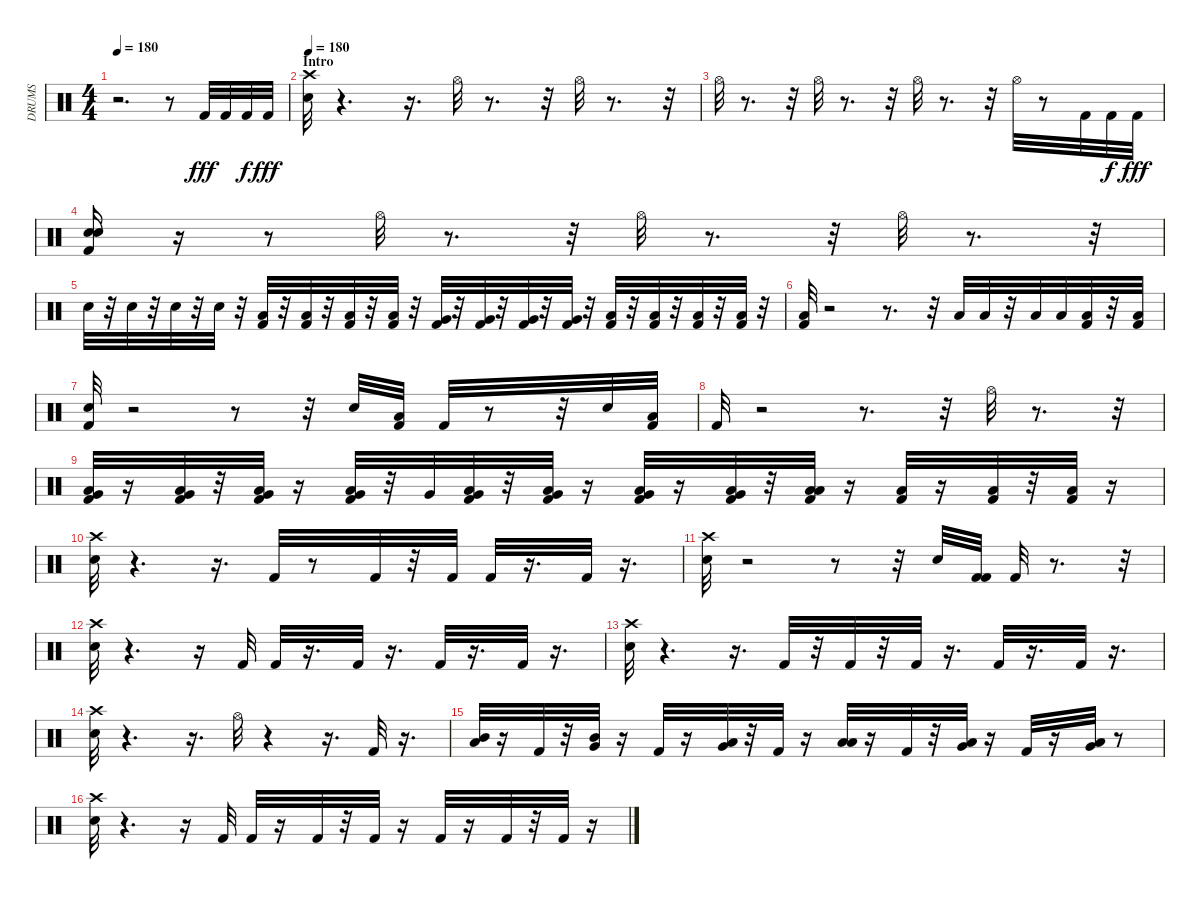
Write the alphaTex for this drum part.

\track ("DRUMS" "DRUMS") {instrument percussion}
\staff {score}
\articulation defaults
\ts (4 4)
\tempo 180
\clef neutral
\ks c
r.2{d dy fff} r.8 "Kick (hit) 2".32 "Kick (hit) 2".32 "Kick (hit) 2".32{dy f} "Kick (hit) 2".32{dy fff} |
\section ("" "Intro")
\tempo 180
("Crash high (hit)" "Electric Snare (hit)").32 r.4{d} r.16{d} "Hi-Hat (open)".32 r.8{d} r.32 "Hi-Hat (open)".32 r.8{d} r.32 |
"Hi-Hat (open)".32 r.8{d} r.32 "Hi-Hat (open)".32 r.8{d} r.32 "Hi-Hat (open)".32 r.8{d} r.32 "Hi-Hat (open)".32 r.8 "Kick (hit) 2".32 "Kick (hit) 2".32{dy f} "Kick (hit) 2".32{dy fff} |
("Kick (hit) 2" "Electric Snare (hit)" "Electric Snare (hit)").16 r.16 r.8 "Hi-Hat (open)".32 r.8{d} r.32 "Hi-Hat (open)".32 r.8{d} r.32 "Hi-Hat (open)".32 r.8{d} r.32 |
"Electric Snare (hit)".32 r.32 "Electric Snare (hit)".32 r.32 "Electric Snare (hit)".32 r.32 "Electric Snare (hit)".32 r.32 ("Low Tom (hit)" "Kick (hit) 2").32 r.32 ("Low Tom (hit)" "Kick (hit) 2").32 r.32 ("Low Tom (hit)" "Kick (hit) 2").32 r.32 ("Low Tom (hit)" "Kick (hit) 2").32 r.32 ("Very Low Tom (hit)" "Kick (hit) 2").32 r.32 ("Very Low Tom (hit)" "Kick (hit) 2").32 r.32 ("Very Low Tom (hit)" "Kick (hit) 2").32 r.32 ("Very Low Tom (hit)" "Kick (hit) 2").32 r.32 ("Low Floor Tom (hit)" "Kick (hit) 2").32 r.32 ("Low Floor Tom (hit)" "Kick (hit) 2").32 r.32 ("Low Floor Tom (hit)" "Kick (hit) 2").32 r.32 ("Low Floor Tom (hit)" "Kick (hit) 2").32 r.32 |
("Low Floor Tom (hit)" "Kick (hit) 2").32 r.2 r.8{d} r.32 "Low Floor Tom (hit)".32 "Low Floor Tom (hit)".32 r.32 "Low Floor Tom (hit)".32 "Low Floor Tom (hit)".32 ("Low Floor Tom (hit)" "Kick (hit) 2").32 r.32 ("Low Floor Tom (hit)" "Kick (hit) 2").32 |
("Electric Snare (hit)" "Kick (hit) 2").32 r.2 r.8 r.32 "Electric Snare (hit)".32 ("Low Floor Tom (hit)" "Kick (hit) 2").32 "Kick (hit) 2".32 r.8 r.32 "Electric Snare (hit)".32 ("Low Floor Tom (hit)" "Kick (hit) 2").32 |
"Kick (hit) 2".32 r.2 r.8{d} r.32 "Hi-Hat (open)".32 r.8{d} r.32 |
("Low Tom (hit)" "Very Low Tom (hit)" "Kick (hit) 2").32 r.16 ("Low Tom (hit)" "Very Low Tom (hit)" "Kick (hit) 2").32 r.32 ("Low Tom (hit)" "Very Low Tom (hit)" "Kick (hit) 2").32 r.16 ("Low Tom (hit)" "Very Low Tom (hit)" "Kick (hit) 2").32 r.32 "Very Low Tom (hit)".32 ("Very Low Tom (hit)" "Low Floor Tom (hit)" "Kick (hit) 2").32 r.32 ("Very Low Tom (hit)" "Low Floor Tom (hit)" "Kick (hit) 2").32 r.16 ("Very Low Tom (hit)" "Low Floor Tom (hit)" "Kick (hit) 2").32 r.16 ("Very Low Tom (hit)" "Low Floor Tom (hit)" "Kick (hit) 2").32 r.32 ("Low Floor Tom (hit)" "Low Floor Tom (hit)" "Kick (hit) 2").32 r.16 ("Low Floor Tom (hit)" "Kick (hit) 2").32 r.16 ("Low Floor Tom (hit)" "Kick (hit) 2").32 r.32 ("Low Floor Tom (hit)" "Kick (hit) 2").32 r.16 |
("Crash high (hit)" "Electric Snare (hit)").32 r.4{d} r.16{d} "Kick (hit) 2".32 r.8 "Kick (hit) 2".32 r.32 "Kick (hit) 2".32 "Kick (hit) 2".32 r.16{d} "Kick (hit) 2".32 r.16{d} |
("Crash high (hit)" "Electric Snare (hit)").32 r.2 r.8 r.32 "Electric Snare (hit)".32 ("Kick (hit) 2" "Kick (hit) 2").32 "Kick (hit) 2".32 r.8{d} r.32 |
("Crash high (hit)" "Electric Snare (hit)").32 r.4{d} r.16 "Kick (hit) 2".32 "Kick (hit) 2".32 r.16{d} "Kick (hit) 2".32 r.16{d} "Kick (hit) 2".32 r.16{d} "Kick (hit) 2".32 r.16{d} |
("Crash high (hit)" "Electric Snare (hit)").32 r.4{d} r.16{d} "Kick (hit) 2".32 r.32 "Kick (hit) 2".32 r.32 "Kick (hit) 2".32 r.16{d} "Kick (hit) 2".32 r.16{d} "Kick (hit) 2".32 r.16{d} |
("Crash high (hit)" "Electric Snare (hit)").32 r.4{d} r.16{d} "Hi-Hat (open)".32 r.4 r.16{d} "Kick (hit) 2".32 r.16{d} |
("Mid Tom (hit)" "Low Tom (hit)").32 r.16 "Kick (hit) 2".32 r.32 ("Mid Tom (hit)" "Very Low Tom (hit)").32 r.16 "Kick (hit) 2".32 r.16 ("Low Tom (hit)" "Very Low Tom (hit)").32 r.32 "Kick (hit) 2".32 r.16 ("Low Tom (hit)" "Low Floor Tom (hit)").32 r.16 "Kick (hit) 2".32 r.32 ("Very Low Tom (hit)" "Low Floor Tom (hit)").32 r.16 "Kick (hit) 2".32 r.16 ("Very Low Tom (hit)" "Low Floor Tom (hit)").32 r.8 |
("Crash high (hit)" "Electric Snare (hit)").32 r.4{d} r.16 "Kick (hit) 2".32 "Kick (hit) 2".32 r.16 "Kick (hit) 2".32 r.32 "Kick (hit) 2".32 r.16 "Kick (hit) 2".32 r.16 "Kick (hit) 2".32 r.32 "Kick (hit) 2".32 r.16
